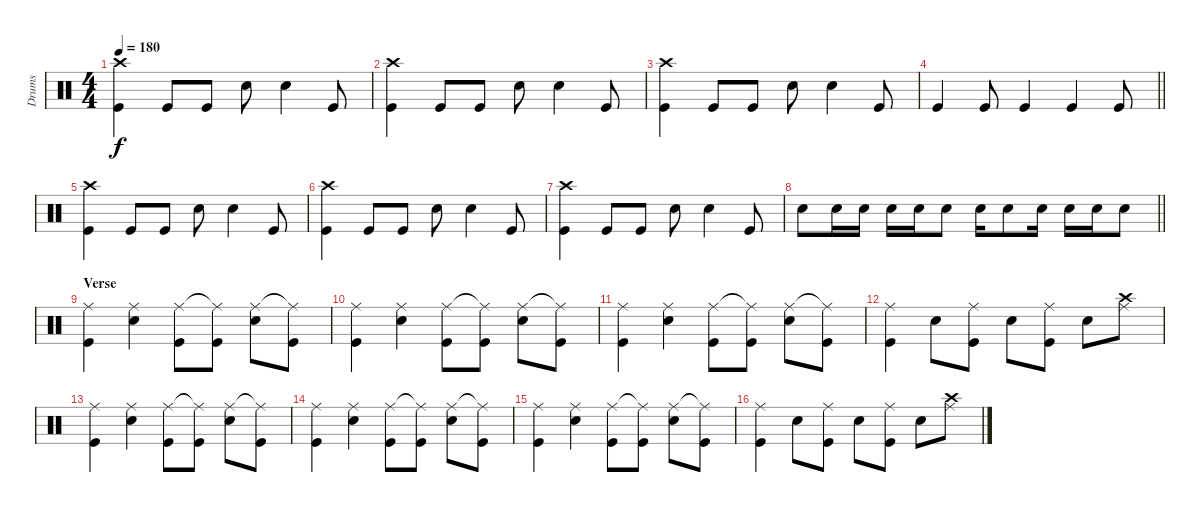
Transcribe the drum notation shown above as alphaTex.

\track ("Drums" "Drums") {instrument percussion}
\staff {score}
\articulation defaults
\ts (4 4)
\tempo 180
\clef neutral
\ks c
("Kick (hit)" "Crash high (hit)").4{dy f} "Kick (hit)".8 "Kick (hit)".8 "Snare (hit) 2".8 "Snare (hit) 2".4 "Kick (hit)".8 |
("Kick (hit)" "Crash high (hit)").4 "Kick (hit)".8 "Kick (hit)".8 "Snare (hit) 2".8 "Snare (hit) 2".4 "Kick (hit)".8 |
("Kick (hit)" "Crash high (hit)").4 "Kick (hit)".8 "Kick (hit)".8 "Snare (hit) 2".8 "Snare (hit) 2".4 "Kick (hit)".8 |
\barLineRight lightlight "Kick (hit)".4 "Kick (hit)".8 "Kick (hit)".4 "Kick (hit)".4 "Kick (hit)".8
|
("Kick (hit)" "Crash high (hit)").4 "Kick (hit)".8 "Kick (hit)".8 "Snare (hit) 2".8 "Snare (hit) 2".4 "Kick (hit)".8 |
("Kick (hit)" "Crash high (hit)").4 "Kick (hit)".8 "Kick (hit)".8 "Snare (hit) 2".8 "Snare (hit) 2".4 "Kick (hit)".8 |
("Kick (hit)" "Crash high (hit)").4 "Kick (hit)".8 "Kick (hit)".8 "Snare (hit) 2".8 "Snare (hit) 2".4 "Kick (hit)".8 |
\barLineRight lightlight "Snare (hit) 2".8 "Snare (hit) 2".16 "Snare (hit) 2".16 "Snare (hit) 2".16 "Snare (hit) 2".16 "Snare (hit) 2".8 "Snare (hit) 2".16 "Snare (hit) 2".8 "Snare (hit) 2".16 "Snare (hit) 2".16 "Snare (hit) 2".16 "Snare (hit) 2".8
|
\section ("" "Verse")
("Kick (hit)" "Ride (middle)").4 ("Snare (hit) 2" "Ride (middle)").4 ("Kick (hit)" "Ride (middle)").8 ("Kick (hit)" "Ride (middle)"{t}).8 ("Snare (hit) 2" "Ride (middle)").8 ("Kick (hit)" "Ride (middle)"{t}).8 |
("Kick (hit)" "Ride (middle)").4 ("Snare (hit) 2" "Ride (middle)").4 ("Kick (hit)" "Ride (middle)").8 ("Kick (hit)" "Ride (middle)"{t}).8 ("Snare (hit) 2" "Ride (middle)").8 ("Kick (hit)" "Ride (middle)"{t}).8 |
("Kick (hit)" "Ride (middle)").4 ("Snare (hit) 2" "Ride (middle)").4 ("Kick (hit)" "Ride (middle)").8 ("Kick (hit)" "Ride (middle)"{t}).8 ("Snare (hit) 2" "Ride (middle)").8 ("Kick (hit)" "Ride (middle)"{t}).8 |
("Kick (hit)" "Ride (middle)").4 "Snare (hit) 2".8 ("Kick (hit)" "Ride (middle)").8 "Snare (hit) 2".8 ("Kick (hit)" "Ride (middle)").8 "Snare (hit) 2".8 ("Crash high (hit)" "Ride (middle)").8 |
("Kick (hit)" "Ride (middle)").4 ("Snare (hit) 2" "Ride (middle)").4 ("Kick (hit)" "Ride (middle)").8 ("Kick (hit)" "Ride (middle)"{t}).8 ("Snare (hit) 2" "Ride (middle)").8 ("Kick (hit)" "Ride (middle)"{t}).8 |
("Kick (hit)" "Ride (middle)").4 ("Snare (hit) 2" "Ride (middle)").4 ("Kick (hit)" "Ride (middle)").8 ("Kick (hit)" "Ride (middle)"{t}).8 ("Snare (hit) 2" "Ride (middle)").8 ("Kick (hit)" "Ride (middle)"{t}).8 |
("Kick (hit)" "Ride (middle)").4 ("Snare (hit) 2" "Ride (middle)").4 ("Kick (hit)" "Ride (middle)").8 ("Kick (hit)" "Ride (middle)"{t}).8 ("Snare (hit) 2" "Ride (middle)").8 ("Kick (hit)" "Ride (middle)"{t}).8 |
("Kick (hit)" "Ride (middle)").4 "Snare (hit) 2".8 ("Kick (hit)" "Ride (middle)").8 "Snare (hit) 2".8 ("Kick (hit)" "Ride (middle)").8 "Snare (hit) 2".8 ("Crash high (hit)" "Ride (middle)").8
